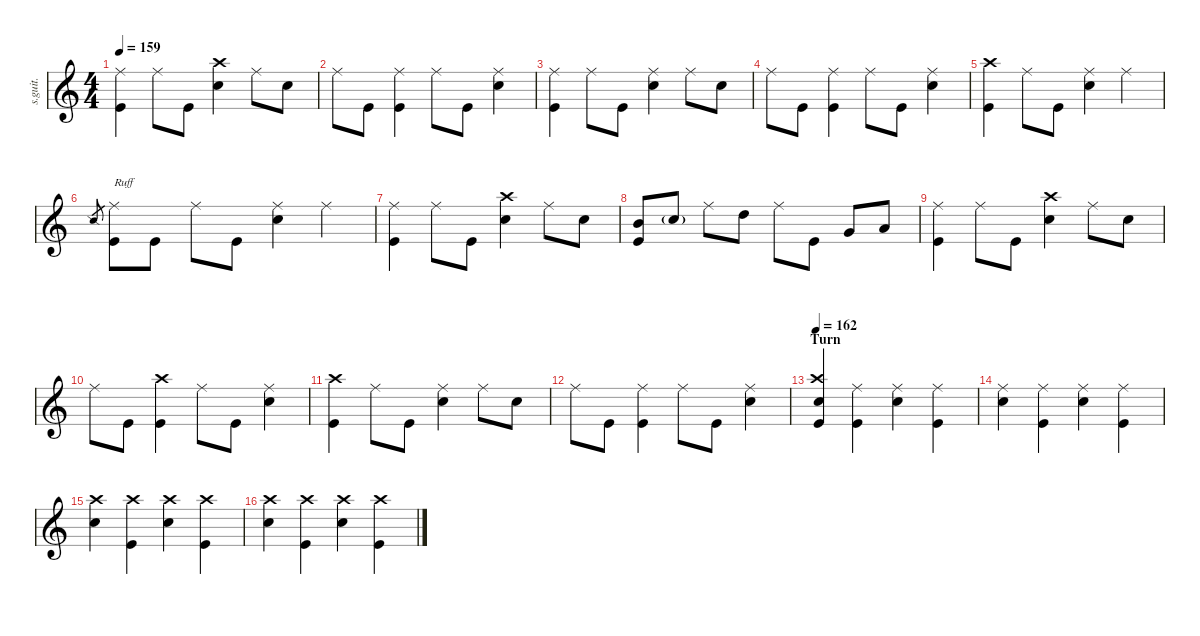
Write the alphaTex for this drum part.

\defaultSystemsLayout 4
\hideDynamics
\bracketExtendMode nobrackets
\track ("John Dolmayan" "s.guit.") {instrument percussion}
\staff {score}
\articulation defaults
\ts (4 4)
\tempo 159
\clef g2
\ks c
("Ride (middle)" "Kick (hit)").4{lyrics (0 "") lyrics (1 "") lyrics (2 "") lyrics (3 "") lyrics (4 "") dy f} "Ride (middle)".8{lyrics (0 "") lyrics (1 "") lyrics (2 "") lyrics (3 "") lyrics (4 "")} "Kick (hit)".8{lyrics (0 "") lyrics (1 "") lyrics (2 "") lyrics (3 "") lyrics (4 "")} ("Crash high (hit)" "Snare (hit) 2").4{lyrics (0 "") lyrics (1 "") lyrics (2 "") lyrics (3 "") lyrics (4 "")} "Ride (middle)".8{lyrics (0 "") lyrics (1 "") lyrics (2 "") lyrics (3 "") lyrics (4 "")} "Snare (hit) 2".8{lyrics (0 "") lyrics (1 "") lyrics (2 "") lyrics (3 "") lyrics (4 "")} |
"Ride (middle)".8{lyrics (0 "") lyrics (1 "") lyrics (2 "") lyrics (3 "") lyrics (4 "")} "Kick (hit)".8{lyrics (0 "") lyrics (1 "") lyrics (2 "") lyrics (3 "") lyrics (4 "")} ("Ride (middle)" "Kick (hit)").4{lyrics (0 "") lyrics (1 "") lyrics (2 "") lyrics (3 "") lyrics (4 "")} "Ride (middle)".8{lyrics (0 "") lyrics (1 "") lyrics (2 "") lyrics (3 "") lyrics (4 "")} "Kick (hit)".8{lyrics (0 "") lyrics (1 "") lyrics (2 "") lyrics (3 "") lyrics (4 "")} ("Ride (middle)" "Snare (hit) 2").4{lyrics (0 "") lyrics (1 "") lyrics (2 "") lyrics (3 "") lyrics (4 "")} |
("Ride (middle)" "Kick (hit)").4{lyrics (0 "") lyrics (1 "") lyrics (2 "") lyrics (3 "") lyrics (4 "")} "Ride (middle)".8{lyrics (0 "") lyrics (1 "") lyrics (2 "") lyrics (3 "") lyrics (4 "")} "Kick (hit)".8{lyrics (0 "") lyrics (1 "") lyrics (2 "") lyrics (3 "") lyrics (4 "")} ("Ride (middle)" "Snare (hit) 2").4{lyrics (0 "") lyrics (1 "") lyrics (2 "") lyrics (3 "") lyrics (4 "")} "Ride (middle)".8{lyrics (0 "") lyrics (1 "") lyrics (2 "") lyrics (3 "") lyrics (4 "")} "Snare (hit) 2".8{lyrics (0 "") lyrics (1 "") lyrics (2 "") lyrics (3 "") lyrics (4 "")} |
"Ride (middle)".8{lyrics (0 "") lyrics (1 "") lyrics (2 "") lyrics (3 "") lyrics (4 "")} "Kick (hit)".8{lyrics (0 "") lyrics (1 "") lyrics (2 "") lyrics (3 "") lyrics (4 "")} ("Ride (middle)" "Kick (hit)").4{lyrics (0 "") lyrics (1 "") lyrics (2 "") lyrics (3 "") lyrics (4 "")} "Ride (middle)".8{lyrics (0 "") lyrics (1 "") lyrics (2 "") lyrics (3 "") lyrics (4 "")} "Kick (hit)".8{lyrics (0 "") lyrics (1 "") lyrics (2 "") lyrics (3 "") lyrics (4 "")} ("Ride (middle)" "Snare (hit) 2").4{lyrics (0 "") lyrics (1 "") lyrics (2 "") lyrics (3 "") lyrics (4 "")} |
("Crash high (hit)" "Kick (hit)").4{lyrics (0 "") lyrics (1 "") lyrics (2 "") lyrics (3 "") lyrics (4 "")} "Ride (middle)".8{lyrics (0 "") lyrics (1 "") lyrics (2 "") lyrics (3 "") lyrics (4 "")} "Kick (hit)".8{lyrics (0 "") lyrics (1 "") lyrics (2 "") lyrics (3 "") lyrics (4 "")} ("Ride (middle)" "Snare (hit) 2").4{lyrics (0 "") lyrics (1 "") lyrics (2 "") lyrics (3 "") lyrics (4 "")} "Ride (middle)".4{lyrics (0 "") lyrics (1 "") lyrics (2 "") lyrics (3 "") lyrics (4 "")} |
"Snare (side stick) 2".8{lyrics (0 "") lyrics (1 "") lyrics (2 "") lyrics (3 "") lyrics (4 "") gr dy mp} ("Ride (middle)" "Kick (hit)").8{txt "Ruff" lyrics (0 "") lyrics (1 "") lyrics (2 "") lyrics (3 "") lyrics (4 "") dy f} "Kick (hit)".8{lyrics (0 "") lyrics (1 "") lyrics (2 "") lyrics (3 "") lyrics (4 "")} "Ride (middle)".8{lyrics (0 "") lyrics (1 "") lyrics (2 "") lyrics (3 "") lyrics (4 "")} "Kick (hit)".8{lyrics (0 "") lyrics (1 "") lyrics (2 "") lyrics (3 "") lyrics (4 "")} ("Ride (middle)" "Snare (hit) 2").4{lyrics (0 "") lyrics (1 "") lyrics (2 "") lyrics (3 "") lyrics (4 "")} "Ride (middle)".4{lyrics (0 "") lyrics (1 "") lyrics (2 "") lyrics (3 "") lyrics (4 "")} |
("Ride (middle)" "Kick (hit)").4{lyrics (0 "") lyrics (1 "") lyrics (2 "") lyrics (3 "") lyrics (4 "")} "Ride (middle)".8{lyrics (0 "") lyrics (1 "") lyrics (2 "") lyrics (3 "") lyrics (4 "")} "Kick (hit)".8{lyrics (0 "") lyrics (1 "") lyrics (2 "") lyrics (3 "") lyrics (4 "")} ("Crash high (hit)" "Snare (hit) 2").4{lyrics (0 "") lyrics (1 "") lyrics (2 "") lyrics (3 "") lyrics (4 "")} "Ride (middle)".8{lyrics (0 "") lyrics (1 "") lyrics (2 "") lyrics (3 "") lyrics (4 "")} "Snare (hit) 2".8{lyrics (0 "") lyrics (1 "") lyrics (2 "") lyrics (3 "") lyrics (4 "")} |
("Mid Tom (hit)" "Kick (hit)").8{lyrics (0 "") lyrics (1 "") lyrics (2 "") lyrics (3 "") lyrics (4 "")} "Snare (hit) 2"{g}.8{lyrics (0 "") lyrics (1 "") lyrics (2 "") lyrics (3 "") lyrics (4 "")} "Ride (middle)".8{lyrics (0 "") lyrics (1 "") lyrics (2 "") lyrics (3 "") lyrics (4 "")} "High Tom (hit)".8{lyrics (0 "") lyrics (1 "") lyrics (2 "") lyrics (3 "") lyrics (4 "")} "Ride (middle)".8{lyrics (0 "") lyrics (1 "") lyrics (2 "") lyrics (3 "") lyrics (4 "")} "Kick (hit)".8{lyrics (0 "") lyrics (1 "") lyrics (2 "") lyrics (3 "") lyrics (4 "")} "Very Low Tom (hit)".8{lyrics (0 "") lyrics (1 "") lyrics (2 "") lyrics (3 "") lyrics (4 "")} "Low Floor Tom (hit)".8{lyrics (0 "") lyrics (1 "") lyrics (2 "") lyrics (3 "") lyrics (4 "")} |
("Ride (middle)" "Kick (hit)").4{lyrics (0 "") lyrics (1 "") lyrics (2 "") lyrics (3 "") lyrics (4 "")} "Ride (middle)".8{lyrics (0 "") lyrics (1 "") lyrics (2 "") lyrics (3 "") lyrics (4 "")} "Kick (hit)".8{lyrics (0 "") lyrics (1 "") lyrics (2 "") lyrics (3 "") lyrics (4 "")} ("Crash high (hit)" "Snare (hit) 2").4{lyrics (0 "") lyrics (1 "") lyrics (2 "") lyrics (3 "") lyrics (4 "")} "Ride (middle)".8{lyrics (0 "") lyrics (1 "") lyrics (2 "") lyrics (3 "") lyrics (4 "")} "Snare (hit) 2".8{lyrics (0 "") lyrics (1 "") lyrics (2 "") lyrics (3 "") lyrics (4 "")} |
"Ride (middle)".8{lyrics (0 "") lyrics (1 "") lyrics (2 "") lyrics (3 "") lyrics (4 "")} "Kick (hit)".8{lyrics (0 "") lyrics (1 "") lyrics (2 "") lyrics (3 "") lyrics (4 "")} ("Crash high (hit)" "Kick (hit)").4{lyrics (0 "") lyrics (1 "") lyrics (2 "") lyrics (3 "") lyrics (4 "")} "Ride (middle)".8{lyrics (0 "") lyrics (1 "") lyrics (2 "") lyrics (3 "") lyrics (4 "")} "Kick (hit)".8{lyrics (0 "") lyrics (1 "") lyrics (2 "") lyrics (3 "") lyrics (4 "")} ("Ride (middle)" "Snare (hit) 2").4{lyrics (0 "") lyrics (1 "") lyrics (2 "") lyrics (3 "") lyrics (4 "")} |
("Crash high (hit)" "Kick (hit)").4{lyrics (0 "") lyrics (1 "") lyrics (2 "") lyrics (3 "") lyrics (4 "")} "Ride (middle)".8{lyrics (0 "") lyrics (1 "") lyrics (2 "") lyrics (3 "") lyrics (4 "")} "Kick (hit)".8{lyrics (0 "") lyrics (1 "") lyrics (2 "") lyrics (3 "") lyrics (4 "")} ("Ride (middle)" "Snare (hit) 2").4{lyrics (0 "") lyrics (1 "") lyrics (2 "") lyrics (3 "") lyrics (4 "")} "Ride (middle)".8{lyrics (0 "") lyrics (1 "") lyrics (2 "") lyrics (3 "") lyrics (4 "")} "Snare (hit) 2".8{lyrics (0 "") lyrics (1 "") lyrics (2 "") lyrics (3 "") lyrics (4 "")} |
"Ride (middle)".8{lyrics (0 "") lyrics (1 "") lyrics (2 "") lyrics (3 "") lyrics (4 "")} "Kick (hit)".8{lyrics (0 "") lyrics (1 "") lyrics (2 "") lyrics (3 "") lyrics (4 "")} ("Ride (middle)" "Kick (hit)").4{lyrics (0 "") lyrics (1 "") lyrics (2 "") lyrics (3 "") lyrics (4 "")} "Ride (middle)".8{lyrics (0 "") lyrics (1 "") lyrics (2 "") lyrics (3 "") lyrics (4 "")} "Kick (hit)".8{lyrics (0 "") lyrics (1 "") lyrics (2 "") lyrics (3 "") lyrics (4 "")} ("Ride (middle)" "Snare (hit) 2").4{lyrics (0 "") lyrics (1 "") lyrics (2 "") lyrics (3 "") lyrics (4 "")} |
\section ("" "Turn")
\tempo 162
("Crash high (hit)" "Kick (hit)" "Snare (hit) 2").4{lyrics (0 "") lyrics (1 "") lyrics (2 "") lyrics (3 "") lyrics (4 "")} ("Kick (hit)" "Ride (middle)").4{lyrics (0 "") lyrics (1 "") lyrics (2 "") lyrics (3 "") lyrics (4 "")} ("Ride (middle)" "Snare (hit) 2").4{lyrics (0 "") lyrics (1 "") lyrics (2 "") lyrics (3 "") lyrics (4 "")} ("Ride (middle)" "Kick (hit)").4{lyrics (0 "") lyrics (1 "") lyrics (2 "") lyrics (3 "") lyrics (4 "")} |
("Ride (middle)" "Snare (hit) 2").4{lyrics (0 "") lyrics (1 "") lyrics (2 "") lyrics (3 "") lyrics (4 "")} ("Ride (middle)" "Kick (hit)").4{lyrics (0 "") lyrics (1 "") lyrics (2 "") lyrics (3 "") lyrics (4 "")} ("Ride (middle)" "Snare (hit) 2").4{lyrics (0 "") lyrics (1 "") lyrics (2 "") lyrics (3 "") lyrics (4 "")} ("Ride (middle)" "Kick (hit)").4{lyrics (0 "") lyrics (1 "") lyrics (2 "") lyrics (3 "") lyrics (4 "")} |
("Crash high (hit)" "Snare (hit) 2").4{lyrics (0 "") lyrics (1 "") lyrics (2 "") lyrics (3 "") lyrics (4 "")} ("Crash high (hit)" "Kick (hit)").4{lyrics (0 "") lyrics (1 "") lyrics (2 "") lyrics (3 "") lyrics (4 "")} ("Crash high (hit)" "Snare (hit) 2").4{lyrics (0 "") lyrics (1 "") lyrics (2 "") lyrics (3 "") lyrics (4 "")} ("Crash high (hit)" "Kick (hit)").4{lyrics (0 "") lyrics (1 "") lyrics (2 "") lyrics (3 "") lyrics (4 "")} |
("Crash high (hit)" "Snare (hit) 2").4{lyrics (0 "") lyrics (1 "") lyrics (2 "") lyrics (3 "") lyrics (4 "")} ("Crash high (hit)" "Kick (hit)").4{lyrics (0 "") lyrics (1 "") lyrics (2 "") lyrics (3 "") lyrics (4 "")} ("Crash high (hit)" "Snare (hit) 2").4{lyrics (0 "") lyrics (1 "") lyrics (2 "") lyrics (3 "") lyrics (4 "")} ("Crash high (hit)" "Kick (hit)").4{lyrics (0 "") lyrics (1 "") lyrics (2 "") lyrics (3 "") lyrics (4 "")}
